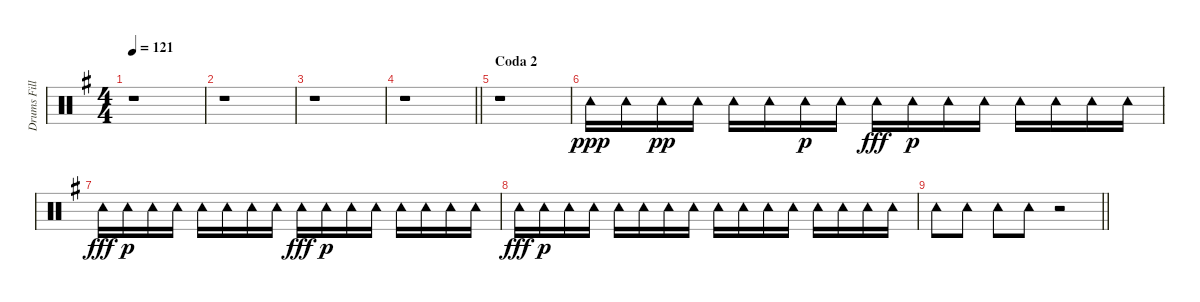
\track ("Drums Fills" "Drums Fill") {instrument percussion}
\staff {score}
\articulation defaults
\ts (4 4)
\tempo 121
\clef neutral
\ks g
r.1{dy ppp} |
r.1 |
r.1 |
\barLineRight lightlight
r.1 |
\section ("" "Coda 2")
r.1 |
"Tambourine (hit)".16 "Tambourine (hit)".16 "Tambourine (hit)".16{dy pp} "Tambourine (hit)".16 "Tambourine (hit)".16 "Tambourine (hit)".16 "Tambourine (hit)".16{dy p} "Tambourine (hit)".16 "Tambourine (hit)".16{dy fff} "Tambourine (hit)".16{dy p} "Tambourine (hit)".16 "Tambourine (hit)".16 "Tambourine (hit)".16 "Tambourine (hit)".16 "Tambourine (hit)".16 "Tambourine (hit)".16 |
"Tambourine (hit)".16{dy fff} "Tambourine (hit)".16{dy p} "Tambourine (hit)".16 "Tambourine (hit)".16 "Tambourine (hit)".16 "Tambourine (hit)".16 "Tambourine (hit)".16 "Tambourine (hit)".16 "Tambourine (hit)".16{dy fff} "Tambourine (hit)".16{dy p} "Tambourine (hit)".16 "Tambourine (hit)".16 "Tambourine (hit)".16 "Tambourine (hit)".16 "Tambourine (hit)".16 "Tambourine (hit)".16 |
"Tambourine (hit)".16{dy fff} "Tambourine (hit)".16{dy p} "Tambourine (hit)".16 "Tambourine (hit)".16 "Tambourine (hit)".16 "Tambourine (hit)".16 "Tambourine (hit)".16 "Tambourine (hit)".16 "Tambourine (hit)".16 "Tambourine (hit)".16 "Tambourine (hit)".16 "Tambourine (hit)".16 "Tambourine (hit)".16 "Tambourine (hit)".16 "Tambourine (hit)".16 "Tambourine (hit)".16 |
\barLineRight lightlight "Tambourine (hit)".8 "Tambourine (hit)".8 "Tambourine (hit)".8 "Tambourine (hit)".8
r.2
